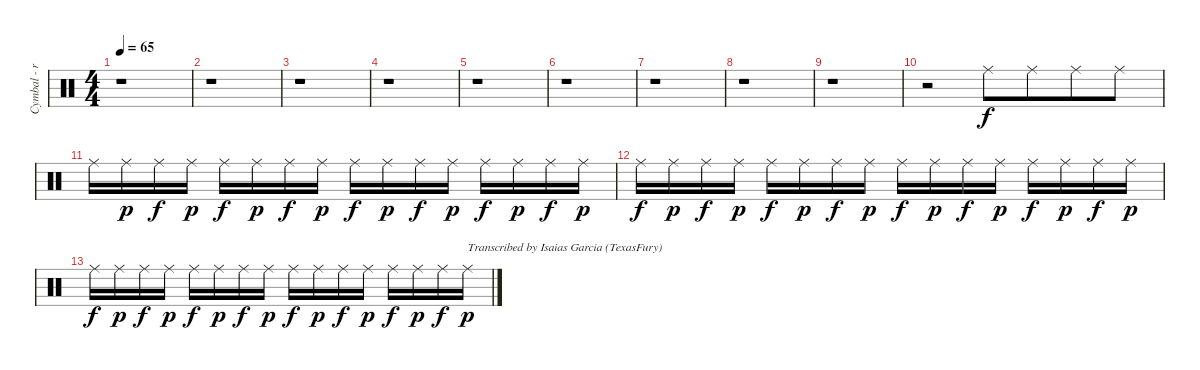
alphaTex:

\track ("Cymbal - ride" "Cymbal - r") {instrument percussion}
\staff {score}
\articulation defaults
\ts (4 4)
\tempo 65
\clef neutral
\ks c
r.1{dy p} |
r.1 |
r.1 |
r.1 |
r.1 |
r.1 |
r.1 |
r.1 |
r.1 |
r.2 "Ride (middle)".8{dy f} "Ride (middle)".8{beam merge} "Ride (middle)".8 "Ride (middle)".8 |
"Ride (middle)".16 "Ride (middle)".16{dy p} "Ride (middle)".16{dy f} "Ride (middle)".16{dy p} "Ride (middle)".16{dy f} "Ride (middle)".16{dy p} "Ride (middle)".16{dy f} "Ride (middle)".16{dy p} "Ride (middle)".16{dy f} "Ride (middle)".16{dy p} "Ride (middle)".16{dy f} "Ride (middle)".16{dy p} "Ride (middle)".16{dy f} "Ride (middle)".16{dy p} "Ride (middle)".16{dy f} "Ride (middle)".16{dy p} |
"Ride (middle)".16{dy f} "Ride (middle)".16{dy p} "Ride (middle)".16{dy f} "Ride (middle)".16{dy p} "Ride (middle)".16{dy f} "Ride (middle)".16{dy p} "Ride (middle)".16{dy f} "Ride (middle)".16{dy p} "Ride (middle)".16{dy f} "Ride (middle)".16{dy p} "Ride (middle)".16{dy f} "Ride (middle)".16{dy p} "Ride (middle)".16{dy f} "Ride (middle)".16{dy p} "Ride (middle)".16{dy f} "Ride (middle)".16{dy p} |
"Ride (middle)".16{dy f} "Ride (middle)".16{dy p} "Ride (middle)".16{dy f} "Ride (middle)".16{dy p} "Ride (middle)".16{dy f} "Ride (middle)".16{dy p} "Ride (middle)".16{dy f} "Ride (middle)".16{dy p} "Ride (middle)".16{dy f} "Ride (middle)".16{dy p} "Ride (middle)".16{dy f} "Ride (middle)".16{dy p} "Ride (middle)".16{dy f} "Ride (middle)".16{dy p} "Ride (middle)".16{dy f} "Ride (middle)".16{txt "Transcribed by Isaias Garcia (TexasFury)" dy p}
